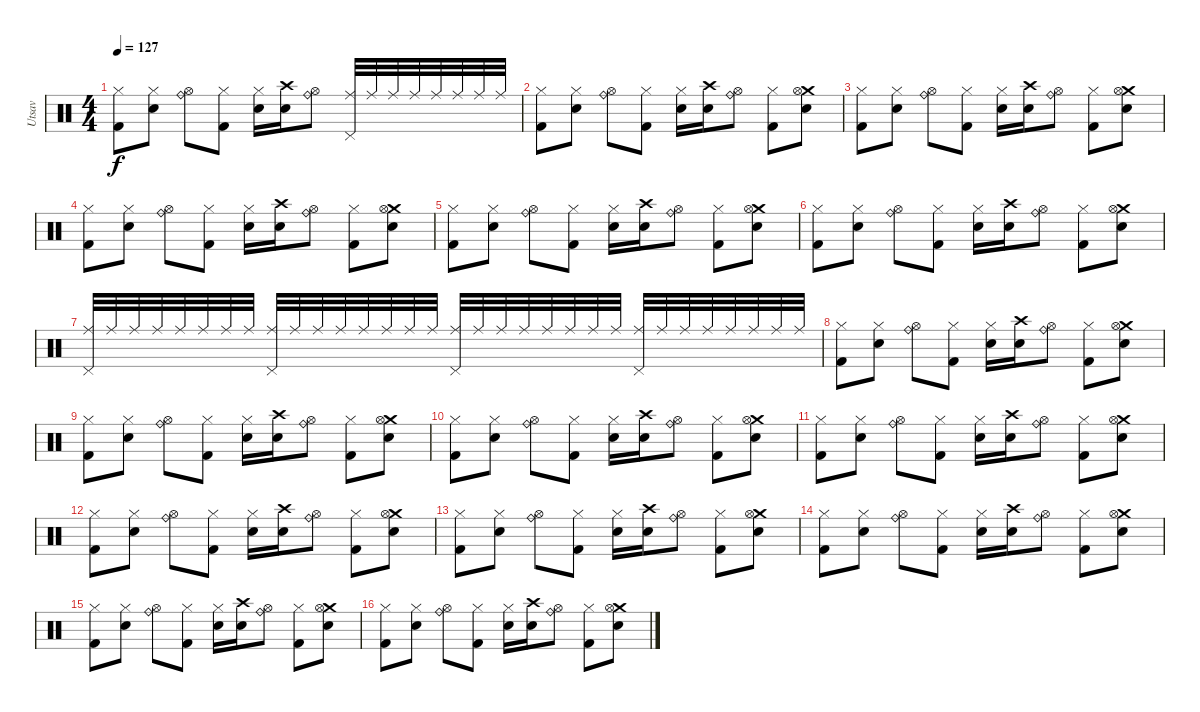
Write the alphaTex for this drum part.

\track ("Utsav" "Utsav") {instrument percussion}
\staff {score}
\articulation defaults
\ts (4 4)
\tempo 127
\clef neutral
\ks c
("Hi-Hat (closed)" "Kick (hit) 2").8{dy f} ("Hi-Hat (closed)" "Snare (hit) 2").8 ("Ride (bell)" "Hi-Hat (open)").8 ("Hi-Hat (closed)" "Kick (hit) 2").8 ("Hi-Hat (closed)" "Snare (hit) 2").16 ("Crash high (hit)" "Snare (hit) 2").16 ("Ride (bell)" "Hi-Hat (open)").8 ("Ride (middle)" "Pedal Hi-Hat (hit)").32 "Ride (middle)".32 "Ride (middle)".32 "Ride (middle)".32 "Ride (middle)".32 "Ride (middle)".32 "Ride (middle)".32 "Ride (middle)".32 |
("Hi-Hat (closed)" "Kick (hit) 2").8 ("Hi-Hat (closed)" "Snare (hit) 2").8 ("Ride (bell)" "Hi-Hat (open)").8 ("Hi-Hat (closed)" "Kick (hit) 2").8 ("Hi-Hat (closed)" "Snare (hit) 2").16 ("Crash high (hit)" "Snare (hit) 2").16 ("Ride (bell)" "Hi-Hat (open)").8 ("Hi-Hat (closed)" "Kick (hit) 2").8 ("Crash medium (hit)" "Hi-Hat (open)" "Snare (hit) 2").8 |
("Hi-Hat (closed)" "Kick (hit) 2").8 ("Hi-Hat (closed)" "Snare (hit) 2").8 ("Ride (bell)" "Hi-Hat (open)").8 ("Hi-Hat (closed)" "Kick (hit) 2").8 ("Hi-Hat (closed)" "Snare (hit) 2").16 ("Crash high (hit)" "Snare (hit) 2").16 ("Ride (bell)" "Hi-Hat (open)").8 ("Hi-Hat (closed)" "Kick (hit) 2").8 ("Crash medium (hit)" "Hi-Hat (open)" "Snare (hit) 2").8 |
("Hi-Hat (closed)" "Kick (hit) 2").8 ("Hi-Hat (closed)" "Snare (hit) 2").8 ("Ride (bell)" "Hi-Hat (open)").8 ("Hi-Hat (closed)" "Kick (hit) 2").8 ("Hi-Hat (closed)" "Snare (hit) 2").16 ("Crash high (hit)" "Snare (hit) 2").16 ("Ride (bell)" "Hi-Hat (open)").8 ("Hi-Hat (closed)" "Kick (hit) 2").8 ("Crash medium (hit)" "Hi-Hat (open)" "Snare (hit) 2").8 |
("Hi-Hat (closed)" "Kick (hit) 2").8 ("Hi-Hat (closed)" "Snare (hit) 2").8 ("Ride (bell)" "Hi-Hat (open)").8 ("Hi-Hat (closed)" "Kick (hit) 2").8 ("Hi-Hat (closed)" "Snare (hit) 2").16 ("Crash high (hit)" "Snare (hit) 2").16 ("Ride (bell)" "Hi-Hat (open)").8 ("Hi-Hat (closed)" "Kick (hit) 2").8 ("Crash medium (hit)" "Hi-Hat (open)" "Snare (hit) 2").8 |
("Hi-Hat (closed)" "Kick (hit) 2").8 ("Hi-Hat (closed)" "Snare (hit) 2").8 ("Ride (bell)" "Hi-Hat (open)").8 ("Hi-Hat (closed)" "Kick (hit) 2").8 ("Hi-Hat (closed)" "Snare (hit) 2").16 ("Crash high (hit)" "Snare (hit) 2").16 ("Ride (bell)" "Hi-Hat (open)").8 ("Hi-Hat (closed)" "Kick (hit) 2").8 ("Crash medium (hit)" "Hi-Hat (open)" "Snare (hit) 2").8 |
("Ride (middle)" "Pedal Hi-Hat (hit)").32 "Ride (middle)".32 "Ride (middle)".32 "Ride (middle)".32 "Ride (middle)".32 "Ride (middle)".32 "Ride (middle)".32 "Ride (middle)".32 ("Ride (middle)" "Pedal Hi-Hat (hit)").32 "Ride (middle)".32 "Ride (middle)".32 "Ride (middle)".32 "Ride (middle)".32 "Ride (middle)".32 "Ride (middle)".32 "Ride (middle)".32 ("Ride (middle)" "Pedal Hi-Hat (hit)").32 "Ride (middle)".32 "Ride (middle)".32 "Ride (middle)".32 "Ride (middle)".32 "Ride (middle)".32 "Ride (middle)".32 "Ride (middle)".32 ("Ride (middle)" "Pedal Hi-Hat (hit)").32 "Ride (middle)".32 "Ride (middle)".32 "Ride (middle)".32 "Ride (middle)".32 "Ride (middle)".32 "Ride (middle)".32 "Ride (middle)".32 |
("Hi-Hat (closed)" "Kick (hit) 2").8 ("Hi-Hat (closed)" "Snare (hit) 2").8 ("Ride (bell)" "Hi-Hat (open)").8 ("Hi-Hat (closed)" "Kick (hit) 2").8 ("Hi-Hat (closed)" "Snare (hit) 2").16 ("Crash high (hit)" "Snare (hit) 2").16 ("Ride (bell)" "Hi-Hat (open)").8 ("Hi-Hat (closed)" "Kick (hit) 2").8 ("Crash medium (hit)" "Hi-Hat (open)" "Snare (hit) 2").8 |
("Hi-Hat (closed)" "Kick (hit) 2").8 ("Hi-Hat (closed)" "Snare (hit) 2").8 ("Ride (bell)" "Hi-Hat (open)").8 ("Hi-Hat (closed)" "Kick (hit) 2").8 ("Hi-Hat (closed)" "Snare (hit) 2").16 ("Crash high (hit)" "Snare (hit) 2").16 ("Ride (bell)" "Hi-Hat (open)").8 ("Hi-Hat (closed)" "Kick (hit) 2").8 ("Crash medium (hit)" "Hi-Hat (open)" "Snare (hit) 2").8 |
("Hi-Hat (closed)" "Kick (hit) 2").8 ("Hi-Hat (closed)" "Snare (hit) 2").8 ("Ride (bell)" "Hi-Hat (open)").8 ("Hi-Hat (closed)" "Kick (hit) 2").8 ("Hi-Hat (closed)" "Snare (hit) 2").16 ("Crash high (hit)" "Snare (hit) 2").16 ("Ride (bell)" "Hi-Hat (open)").8 ("Hi-Hat (closed)" "Kick (hit) 2").8 ("Crash medium (hit)" "Hi-Hat (open)" "Snare (hit) 2").8 |
("Hi-Hat (closed)" "Kick (hit) 2").8 ("Hi-Hat (closed)" "Snare (hit) 2").8 ("Ride (bell)" "Hi-Hat (open)").8 ("Hi-Hat (closed)" "Kick (hit) 2").8 ("Hi-Hat (closed)" "Snare (hit) 2").16 ("Crash high (hit)" "Snare (hit) 2").16 ("Ride (bell)" "Hi-Hat (open)").8 ("Hi-Hat (closed)" "Kick (hit) 2").8 ("Crash medium (hit)" "Hi-Hat (open)" "Snare (hit) 2").8 |
("Hi-Hat (closed)" "Kick (hit) 2").8 ("Hi-Hat (closed)" "Snare (hit) 2").8 ("Ride (bell)" "Hi-Hat (open)").8 ("Hi-Hat (closed)" "Kick (hit) 2").8 ("Hi-Hat (closed)" "Snare (hit) 2").16 ("Crash high (hit)" "Snare (hit) 2").16 ("Ride (bell)" "Hi-Hat (open)").8 ("Hi-Hat (closed)" "Kick (hit) 2").8 ("Crash medium (hit)" "Hi-Hat (open)" "Snare (hit) 2").8 |
("Hi-Hat (closed)" "Kick (hit) 2").8 ("Hi-Hat (closed)" "Snare (hit) 2").8 ("Ride (bell)" "Hi-Hat (open)").8 ("Hi-Hat (closed)" "Kick (hit) 2").8 ("Hi-Hat (closed)" "Snare (hit) 2").16 ("Crash high (hit)" "Snare (hit) 2").16 ("Ride (bell)" "Hi-Hat (open)").8 ("Hi-Hat (closed)" "Kick (hit) 2").8 ("Crash medium (hit)" "Hi-Hat (open)" "Snare (hit) 2").8 |
("Hi-Hat (closed)" "Kick (hit) 2").8 ("Hi-Hat (closed)" "Snare (hit) 2").8 ("Ride (bell)" "Hi-Hat (open)").8 ("Hi-Hat (closed)" "Kick (hit) 2").8 ("Hi-Hat (closed)" "Snare (hit) 2").16 ("Crash high (hit)" "Snare (hit) 2").16 ("Ride (bell)" "Hi-Hat (open)").8 ("Hi-Hat (closed)" "Kick (hit) 2").8 ("Crash medium (hit)" "Hi-Hat (open)" "Snare (hit) 2").8 |
("Hi-Hat (closed)" "Kick (hit) 2").8 ("Hi-Hat (closed)" "Snare (hit) 2").8 ("Ride (bell)" "Hi-Hat (open)").8 ("Hi-Hat (closed)" "Kick (hit) 2").8 ("Hi-Hat (closed)" "Snare (hit) 2").16 ("Crash high (hit)" "Snare (hit) 2").16 ("Ride (bell)" "Hi-Hat (open)").8 ("Hi-Hat (closed)" "Kick (hit) 2").8 ("Crash medium (hit)" "Hi-Hat (open)" "Snare (hit) 2").8 |
("Hi-Hat (closed)" "Kick (hit) 2").8 ("Hi-Hat (closed)" "Snare (hit) 2").8 ("Ride (bell)" "Hi-Hat (open)").8 ("Hi-Hat (closed)" "Kick (hit) 2").8 ("Hi-Hat (closed)" "Snare (hit) 2").16 ("Crash high (hit)" "Snare (hit) 2").16 ("Ride (bell)" "Hi-Hat (open)").8 ("Hi-Hat (closed)" "Kick (hit) 2").8 ("Crash medium (hit)" "Hi-Hat (open)" "Snare (hit) 2").8
